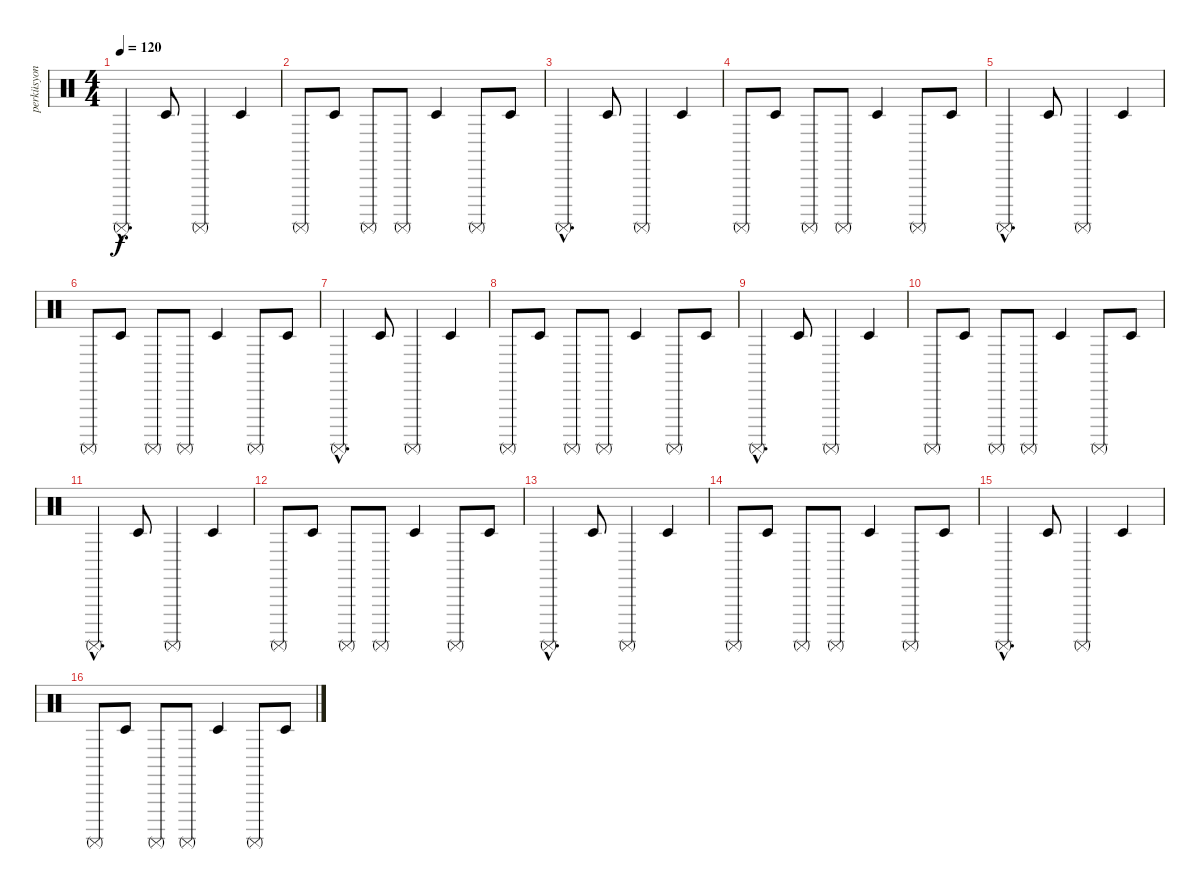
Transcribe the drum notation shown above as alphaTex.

\track ("perküsyon" "perküsyon") {instrument percussion}
\staff {score}
\articulation defaults
\ts (4 4)
\tempo 120
\clef neutral
\ks c "Surdo (mute)"{hac}.4{d dy f} "Timbale low (hit)".8 "Surdo (mute)".4 "Timbale low (hit)".4
|
"Surdo (mute)".8 "Timbale low (hit)".8 "Surdo (mute)".8 "Surdo (mute)".8 "Timbale low (hit)".4 "Surdo (mute)".8 "Timbale low (hit)".8 |
"Surdo (mute)"{hac}.4{d} "Timbale low (hit)".8 "Surdo (mute)".4 "Timbale low (hit)".4 |
"Surdo (mute)".8 "Timbale low (hit)".8 "Surdo (mute)".8 "Surdo (mute)".8 "Timbale low (hit)".4 "Surdo (mute)".8 "Timbale low (hit)".8 |
"Surdo (mute)"{hac}.4{d} "Timbale low (hit)".8 "Surdo (mute)".4 "Timbale low (hit)".4 |
"Surdo (mute)".8 "Timbale low (hit)".8 "Surdo (mute)".8 "Surdo (mute)".8 "Timbale low (hit)".4 "Surdo (mute)".8 "Timbale low (hit)".8 |
"Surdo (mute)"{hac}.4{d} "Timbale low (hit)".8 "Surdo (mute)".4 "Timbale low (hit)".4 |
"Surdo (mute)".8 "Timbale low (hit)".8 "Surdo (mute)".8 "Surdo (mute)".8 "Timbale low (hit)".4 "Surdo (mute)".8 "Timbale low (hit)".8 |
"Surdo (mute)"{hac}.4{d} "Timbale low (hit)".8 "Surdo (mute)".4 "Timbale low (hit)".4 |
"Surdo (mute)".8 "Timbale low (hit)".8 "Surdo (mute)".8 "Surdo (mute)".8 "Timbale low (hit)".4 "Surdo (mute)".8 "Timbale low (hit)".8 |
"Surdo (mute)"{hac}.4{d} "Timbale low (hit)".8 "Surdo (mute)".4 "Timbale low (hit)".4 |
"Surdo (mute)".8 "Timbale low (hit)".8 "Surdo (mute)".8 "Surdo (mute)".8 "Timbale low (hit)".4 "Surdo (mute)".8 "Timbale low (hit)".8 |
"Surdo (mute)"{hac}.4{d} "Timbale low (hit)".8 "Surdo (mute)".4 "Timbale low (hit)".4 |
"Surdo (mute)".8 "Timbale low (hit)".8 "Surdo (mute)".8 "Surdo (mute)".8 "Timbale low (hit)".4 "Surdo (mute)".8 "Timbale low (hit)".8 |
"Surdo (mute)"{hac}.4{d} "Timbale low (hit)".8 "Surdo (mute)".4 "Timbale low (hit)".4 |
"Surdo (mute)".8 "Timbale low (hit)".8 "Surdo (mute)".8 "Surdo (mute)".8 "Timbale low (hit)".4 "Surdo (mute)".8 "Timbale low (hit)".8
